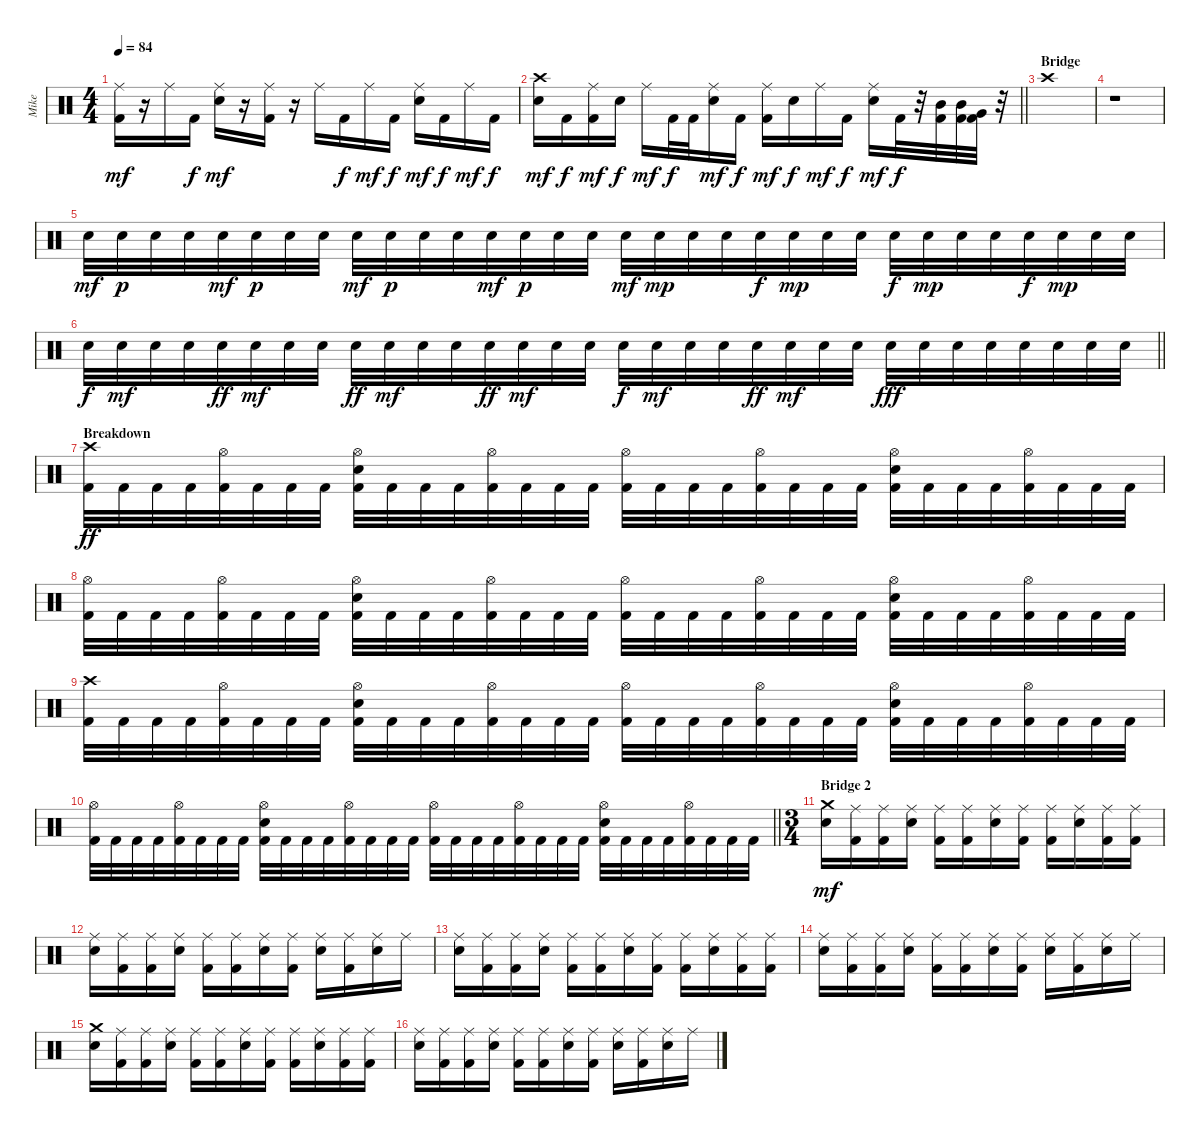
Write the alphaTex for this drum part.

\track ("Mike" "Mike") {instrument percussion}
\staff {score}
\articulation defaults
\ts (4 4)
\tempo 84
\clef neutral
\ks c
("Ride (middle)" "Kick (hit) 2").16{dy mf} r.16 "Ride (middle)".16 "Kick (hit) 2".16{dy f} ("Ride (middle)" "Snare (hit) 2").16{dy mf} r.16 ("Ride (middle)" "Kick (hit) 2").16 r.16 "Ride (middle)".16 "Kick (hit) 2".16{dy f} "Ride (middle)".16{dy mf} "Kick (hit) 2".16{dy f} ("Ride (middle)" "Snare (hit) 2").16{dy mf} "Kick (hit) 2".16{dy f} "Ride (middle)".16{dy mf} "Kick (hit) 2".16{dy f} |
\barLineRight lightlight
("Crash high (hit)" "Snare (hit) 2").16{dy mf} "Kick (hit) 2".16{dy f} ("Ride (middle)" "Kick (hit) 2").16{dy mf} "Snare (hit) 2".16{dy f} "Ride (middle)".16{dy mf} "Kick (hit) 2".32{dy f} "Kick (hit) 2".32 ("Ride (middle)" "Snare (hit) 2").16{dy mf} "Kick (hit) 2".16{dy f} ("Ride (middle)" "Kick (hit) 2").16{dy mf} "Snare (hit) 2".16{dy f} "Ride (middle)".16{dy mf} "Kick (hit) 2".16{dy f} ("Ride (middle)" "Snare (hit) 2").16{dy mf} "Kick (hit) 2".32{dy f} r.32 ("Mid Tom (hit)" "Kick (hit) 2").32 ("Mid Tom (hit)" "Kick (hit) 2").32 ("Very Low Tom (hit)" "Kick (hit) 2").32 r.32 |
\section ("" "Bridge")
"Crash high (hit)".1 |
r.1 |
"Snare (hit) 2".32{dy mf} "Snare (hit) 2".32{dy p} "Snare (hit) 2".32 "Snare (hit) 2".32 "Snare (hit) 2".32{dy mf} "Snare (hit) 2".32{dy p} "Snare (hit) 2".32 "Snare (hit) 2".32 "Snare (hit) 2".32{dy mf} "Snare (hit) 2".32{dy p} "Snare (hit) 2".32 "Snare (hit) 2".32 "Snare (hit) 2".32{dy mf} "Snare (hit) 2".32{dy p} "Snare (hit) 2".32 "Snare (hit) 2".32 "Snare (hit) 2".32{dy mf} "Snare (hit) 2".32{dy mp} "Snare (hit) 2".32 "Snare (hit) 2".32 "Snare (hit) 2".32{dy f} "Snare (hit) 2".32{dy mp} "Snare (hit) 2".32 "Snare (hit) 2".32 "Snare (hit) 2".32{dy f} "Snare (hit) 2".32{dy mp} "Snare (hit) 2".32 "Snare (hit) 2".32 "Snare (hit) 2".32{dy f} "Snare (hit) 2".32{dy mp} "Snare (hit) 2".32 "Snare (hit) 2".32 |
\barLineRight lightlight "Snare (hit) 2".32{dy f} "Snare (hit) 2".32{dy mf} "Snare (hit) 2".32 "Snare (hit) 2".32 "Snare (hit) 2".32{dy ff} "Snare (hit) 2".32{dy mf} "Snare (hit) 2".32 "Snare (hit) 2".32 "Snare (hit) 2".32{dy ff} "Snare (hit) 2".32{dy mf} "Snare (hit) 2".32 "Snare (hit) 2".32 "Snare (hit) 2".32{dy ff} "Snare (hit) 2".32{dy mf} "Snare (hit) 2".32 "Snare (hit) 2".32 "Snare (hit) 2".32{dy f} "Snare (hit) 2".32{dy mf} "Snare (hit) 2".32 "Snare (hit) 2".32 "Snare (hit) 2".32{dy ff} "Snare (hit) 2".32{dy mf} "Snare (hit) 2".32 "Snare (hit) 2".32 "Snare (hit) 2".32{dy fff} "Snare (hit) 2".32 "Snare (hit) 2".32 "Snare (hit) 2".32 "Snare (hit) 2".32 "Snare (hit) 2".32 "Snare (hit) 2".32 "Snare (hit) 2".32
|
\section ("" "Breakdown")
("Crash high (hit)" "Kick (hit) 2").32{dy ff} "Kick (hit) 2".32 "Kick (hit) 2".32 "Kick (hit) 2".32 ("Hi-Hat (open)" "Kick (hit) 2").32 "Kick (hit) 2".32 "Kick (hit) 2".32 "Kick (hit) 2".32 ("Hi-Hat (open)" "Snare (hit) 2" "Kick (hit) 2").32 "Kick (hit) 2".32 "Kick (hit) 2".32 "Kick (hit) 2".32 ("Hi-Hat (open)" "Kick (hit) 2").32 "Kick (hit) 2".32 "Kick (hit) 2".32 "Kick (hit) 2".32 ("Hi-Hat (open)" "Kick (hit) 2").32 "Kick (hit) 2".32 "Kick (hit) 2".32 "Kick (hit) 2".32 ("Hi-Hat (open)" "Kick (hit) 2").32 "Kick (hit) 2".32 "Kick (hit) 2".32 "Kick (hit) 2".32 ("Hi-Hat (open)" "Snare (hit) 2" "Kick (hit) 2").32 "Kick (hit) 2".32 "Kick (hit) 2".32 "Kick (hit) 2".32 ("Hi-Hat (open)" "Kick (hit) 2").32 "Kick (hit) 2".32 "Kick (hit) 2".32 "Kick (hit) 2".32 |
("Hi-Hat (open)" "Kick (hit) 2").32 "Kick (hit) 2".32 "Kick (hit) 2".32 "Kick (hit) 2".32 ("Hi-Hat (open)" "Kick (hit) 2").32 "Kick (hit) 2".32 "Kick (hit) 2".32 "Kick (hit) 2".32 ("Hi-Hat (open)" "Snare (hit) 2" "Kick (hit) 2").32 "Kick (hit) 2".32 "Kick (hit) 2".32 "Kick (hit) 2".32 ("Hi-Hat (open)" "Kick (hit) 2").32 "Kick (hit) 2".32 "Kick (hit) 2".32 "Kick (hit) 2".32 ("Hi-Hat (open)" "Kick (hit) 2").32 "Kick (hit) 2".32 "Kick (hit) 2".32 "Kick (hit) 2".32 ("Hi-Hat (open)" "Kick (hit) 2").32 "Kick (hit) 2".32 "Kick (hit) 2".32 "Kick (hit) 2".32 ("Hi-Hat (open)" "Snare (hit) 2" "Kick (hit) 2").32 "Kick (hit) 2".32 "Kick (hit) 2".32 "Kick (hit) 2".32 ("Hi-Hat (open)" "Kick (hit) 2").32 "Kick (hit) 2".32 "Kick (hit) 2".32 "Kick (hit) 2".32 |
("Crash high (hit)" "Kick (hit) 2").32 "Kick (hit) 2".32 "Kick (hit) 2".32 "Kick (hit) 2".32 ("Hi-Hat (open)" "Kick (hit) 2").32 "Kick (hit) 2".32 "Kick (hit) 2".32 "Kick (hit) 2".32 ("Hi-Hat (open)" "Snare (hit) 2" "Kick (hit) 2").32 "Kick (hit) 2".32 "Kick (hit) 2".32 "Kick (hit) 2".32 ("Hi-Hat (open)" "Kick (hit) 2").32 "Kick (hit) 2".32 "Kick (hit) 2".32 "Kick (hit) 2".32 ("Hi-Hat (open)" "Kick (hit) 2").32 "Kick (hit) 2".32 "Kick (hit) 2".32 "Kick (hit) 2".32 ("Hi-Hat (open)" "Kick (hit) 2").32 "Kick (hit) 2".32 "Kick (hit) 2".32 "Kick (hit) 2".32 ("Hi-Hat (open)" "Snare (hit) 2" "Kick (hit) 2").32 "Kick (hit) 2".32 "Kick (hit) 2".32 "Kick (hit) 2".32 ("Hi-Hat (open)" "Kick (hit) 2").32 "Kick (hit) 2".32 "Kick (hit) 2".32 "Kick (hit) 2".32 |
\barLineRight lightlight
("Hi-Hat (open)" "Kick (hit) 2").32 "Kick (hit) 2".32 "Kick (hit) 2".32 "Kick (hit) 2".32 ("Hi-Hat (open)" "Kick (hit) 2").32 "Kick (hit) 2".32 "Kick (hit) 2".32 "Kick (hit) 2".32 ("Hi-Hat (open)" "Snare (hit) 2" "Kick (hit) 2").32 "Kick (hit) 2".32 "Kick (hit) 2".32 "Kick (hit) 2".32 ("Hi-Hat (open)" "Kick (hit) 2").32 "Kick (hit) 2".32 "Kick (hit) 2".32 "Kick (hit) 2".32 ("Hi-Hat (open)" "Kick (hit) 2").32 "Kick (hit) 2".32 "Kick (hit) 2".32 "Kick (hit) 2".32 ("Hi-Hat (open)" "Kick (hit) 2").32 "Kick (hit) 2".32 "Kick (hit) 2".32 "Kick (hit) 2".32 ("Hi-Hat (open)" "Snare (hit) 2" "Kick (hit) 2").32 "Kick (hit) 2".32 "Kick (hit) 2".32 "Kick (hit) 2".32 ("Hi-Hat (open)" "Kick (hit) 2").32 "Kick (hit) 2".32 "Kick (hit) 2".32 "Kick (hit) 2".32 |
\ts (3 4)
\section ("" "Bridge 2")
("Crash medium (hit)" "Snare (hit) 2").16{dy mf} ("Ride (middle)" "Kick (hit) 2").16 ("Ride (middle)" "Kick (hit) 2").16 ("Ride (middle)" "Snare (hit) 2").16 ("Ride (middle)" "Kick (hit) 2").16 ("Ride (middle)" "Kick (hit) 2").16 ("Ride (middle)" "Snare (hit) 2").16 ("Ride (middle)" "Kick (hit) 2").16 ("Ride (middle)" "Kick (hit) 2").16 ("Ride (middle)" "Snare (hit) 2").16 ("Ride (middle)" "Kick (hit) 2").16 ("Ride (middle)" "Kick (hit) 2").16 |
("Ride (middle)" "Snare (hit) 2").16 ("Ride (middle)" "Kick (hit) 2").16 ("Ride (middle)" "Kick (hit) 2").16 ("Ride (middle)" "Snare (hit) 2").16 ("Ride (middle)" "Kick (hit) 2").16 ("Ride (middle)" "Kick (hit) 2").16 ("Ride (middle)" "Snare (hit) 2").16 ("Ride (middle)" "Kick (hit) 2").16 ("Ride (middle)" "Snare (hit) 2").16 ("Ride (middle)" "Kick (hit) 2").16 ("Ride (middle)" "Snare (hit) 2").16 "Ride (middle)".16 |
("Ride (middle)" "Snare (hit) 2").16 ("Ride (middle)" "Kick (hit) 2").16 ("Ride (middle)" "Kick (hit) 2").16 ("Ride (middle)" "Snare (hit) 2").16 ("Ride (middle)" "Kick (hit) 2").16 ("Ride (middle)" "Kick (hit) 2").16 ("Ride (middle)" "Snare (hit) 2").16 ("Ride (middle)" "Kick (hit) 2").16 ("Ride (middle)" "Kick (hit) 2").16 ("Ride (middle)" "Snare (hit) 2").16 ("Ride (middle)" "Kick (hit) 2").16 ("Ride (middle)" "Kick (hit) 2").16 |
("Ride (middle)" "Snare (hit) 2").16 ("Ride (middle)" "Kick (hit) 2").16 ("Ride (middle)" "Kick (hit) 2").16 ("Ride (middle)" "Snare (hit) 2").16 ("Ride (middle)" "Kick (hit) 2").16 ("Ride (middle)" "Kick (hit) 2").16 ("Ride (middle)" "Snare (hit) 2").16 ("Ride (middle)" "Kick (hit) 2").16 ("Ride (middle)" "Snare (hit) 2").16 ("Ride (middle)" "Kick (hit) 2").16 ("Ride (middle)" "Snare (hit) 2").16 "Ride (middle)".16 |
("Crash medium (hit)" "Snare (hit) 2").16 ("Ride (middle)" "Kick (hit) 2").16 ("Ride (middle)" "Kick (hit) 2").16 ("Ride (middle)" "Snare (hit) 2").16 ("Ride (middle)" "Kick (hit) 2").16 ("Ride (middle)" "Kick (hit) 2").16 ("Ride (middle)" "Snare (hit) 2").16 ("Ride (middle)" "Kick (hit) 2").16 ("Ride (middle)" "Kick (hit) 2").16 ("Ride (middle)" "Snare (hit) 2").16 ("Ride (middle)" "Kick (hit) 2").16 ("Ride (middle)" "Kick (hit) 2").16 |
("Ride (middle)" "Snare (hit) 2").16 ("Ride (middle)" "Kick (hit) 2").16 ("Ride (middle)" "Kick (hit) 2").16 ("Ride (middle)" "Snare (hit) 2").16 ("Ride (middle)" "Kick (hit) 2").16 ("Ride (middle)" "Kick (hit) 2").16 ("Ride (middle)" "Snare (hit) 2").16 ("Ride (middle)" "Kick (hit) 2").16 ("Ride (middle)" "Snare (hit) 2").16 ("Ride (middle)" "Kick (hit) 2").16 ("Ride (middle)" "Snare (hit) 2").16 "Ride (middle)".16
